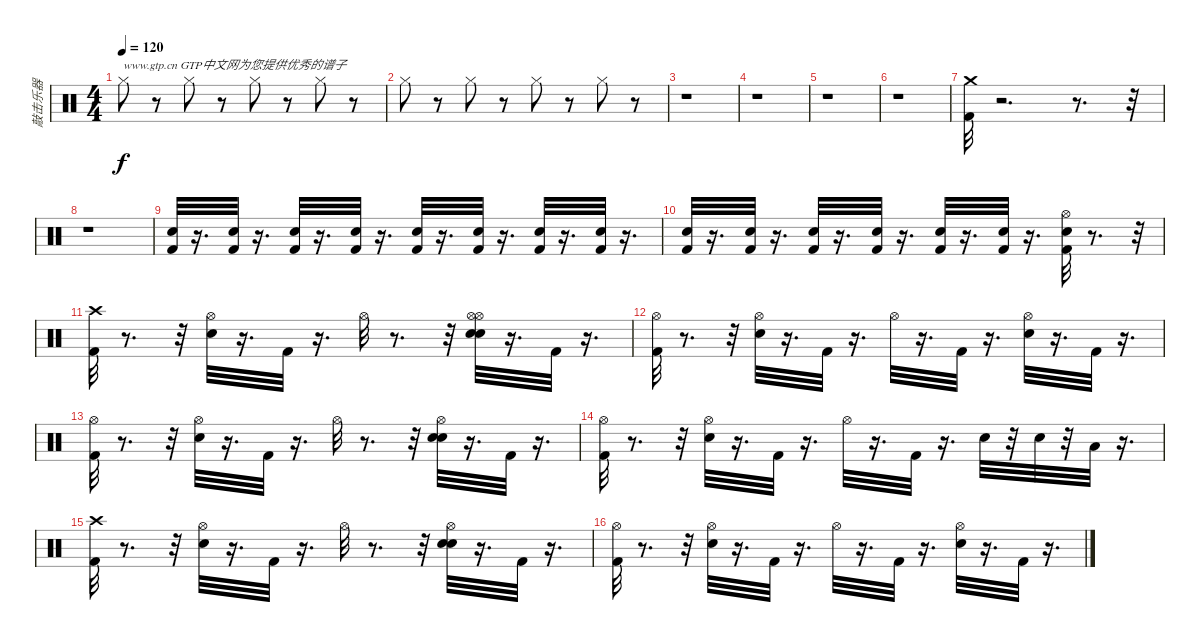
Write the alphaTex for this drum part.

\track ("敲击乐器" "敲击乐器") {instrument percussion}
\staff {score}
\articulation defaults
\ts (4 4)
\tempo 120
\clef neutral
\ks c "Hi-Hat (closed)".8{txt "www.gtp.cn GTP中文网为您提供优秀的谱子" dy f}
r.8 "Hi-Hat (closed)".8 r.8 "Hi-Hat (closed)".8 r.8 "Hi-Hat (closed)".8 r.8 |
"Hi-Hat (closed)".8 r.8 "Hi-Hat (closed)".8 r.8 "Hi-Hat (closed)".8 r.8 "Hi-Hat (closed)".8 r.8 |
r.1 |
r.1 |
r.1 |
r.1 |
("Kick (hit) 2" "Crash medium (hit)").32 r.2{d} r.8{d} r.32 |
r.1 |
("Kick (hit) 2" "Snare (hit) 2").32 r.16{d} ("Kick (hit) 2" "Snare (hit) 2").32 r.16{d} ("Kick (hit) 2" "Snare (hit) 2").32 r.16{d} ("Snare (hit) 2" "Kick (hit) 2").32 r.16{d} ("Kick (hit) 2" "Snare (hit) 2").32 r.16{d} ("Kick (hit) 2" "Snare (hit) 2").32 r.16{d} ("Kick (hit) 2" "Snare (hit) 2").32 r.16{d} ("Kick (hit) 2" "Snare (hit) 2").32 r.16{d} |
("Kick (hit) 2" "Snare (hit) 2").32 r.16{d} ("Kick (hit) 2" "Snare (hit) 2").32 r.16{d} ("Kick (hit) 2" "Snare (hit) 2").32 r.16{d} ("Snare (hit) 2" "Kick (hit) 2").32 r.16{d} ("Kick (hit) 2" "Snare (hit) 2").32 r.16{d} ("Kick (hit) 2" "Snare (hit) 2").32 r.16{d} ("Kick (hit) 2" "Snare (hit) 2" "Hi-Hat (open)").32 r.8{d} r.32 |
("Kick (hit) 2" "Crash high (hit)").32 r.8{d} r.32 ("Snare (hit) 2" "Hi-Hat (open)").32 r.16{d} "Kick (hit) 2".32 r.16{d} "Hi-Hat (open)".32 r.8{d} r.32 ("Snare (hit) 2" "Hi-Hat (open)" "Snare (hit) 2" "Hi-Hat (open)").32 r.16{d} "Kick (hit) 2".32 r.16{d} |
("Kick (hit) 2" "Hi-Hat (open)").32 r.8{d} r.32 ("Snare (hit) 2" "Hi-Hat (open)").32 r.16{d} "Kick (hit) 2".32 r.16{d} "Hi-Hat (open)".32 r.16{d} "Kick (hit) 2".32 r.16{d} ("Snare (hit) 2" "Hi-Hat (open)").32 r.16{d} "Kick (hit) 2".32 r.16{d} |
("Hi-Hat (open)" "Kick (hit) 2").32 r.8{d} r.32 ("Snare (hit) 2" "Hi-Hat (open)").32 r.16{d} "Kick (hit) 2".32 r.16{d} "Hi-Hat (open)".32 r.8{d} r.32 ("Snare (hit) 2" "Hi-Hat (open)" "Snare (hit) 2").32 r.16{d} "Kick (hit) 2".32 r.16{d} |
("Kick (hit) 2" "Hi-Hat (open)").32 r.8{d} r.32 ("Snare (hit) 2" "Hi-Hat (open)").32 r.16{d} "Kick (hit) 2".32 r.16{d} "Hi-Hat (open)".32 r.16{d} "Kick (hit) 2".32 r.16{d} "Snare (hit) 2".32 r.32 "Snare (hit) 2".32 r.32 "Low Floor Tom (hit)".32 r.16{d} |
("Kick (hit) 2" "Crash high (hit)").32 r.8{d} r.32 ("Snare (hit) 2" "Hi-Hat (open)").32 r.16{d} "Kick (hit) 2".32 r.16{d} "Hi-Hat (open)".32 r.8{d} r.32 ("Snare (hit) 2" "Hi-Hat (open)" "Snare (hit) 2").32 r.16{d} "Kick (hit) 2".32 r.16{d} |
("Kick (hit) 2" "Hi-Hat (open)").32 r.8{d} r.32 ("Snare (hit) 2" "Hi-Hat (open)").32 r.16{d} "Kick (hit) 2".32 r.16{d} "Hi-Hat (open)".32 r.16{d} "Kick (hit) 2".32 r.16{d} ("Hi-Hat (open)" "Snare (hit) 2").32 r.16{d} "Kick (hit) 2".32 r.16{d}
